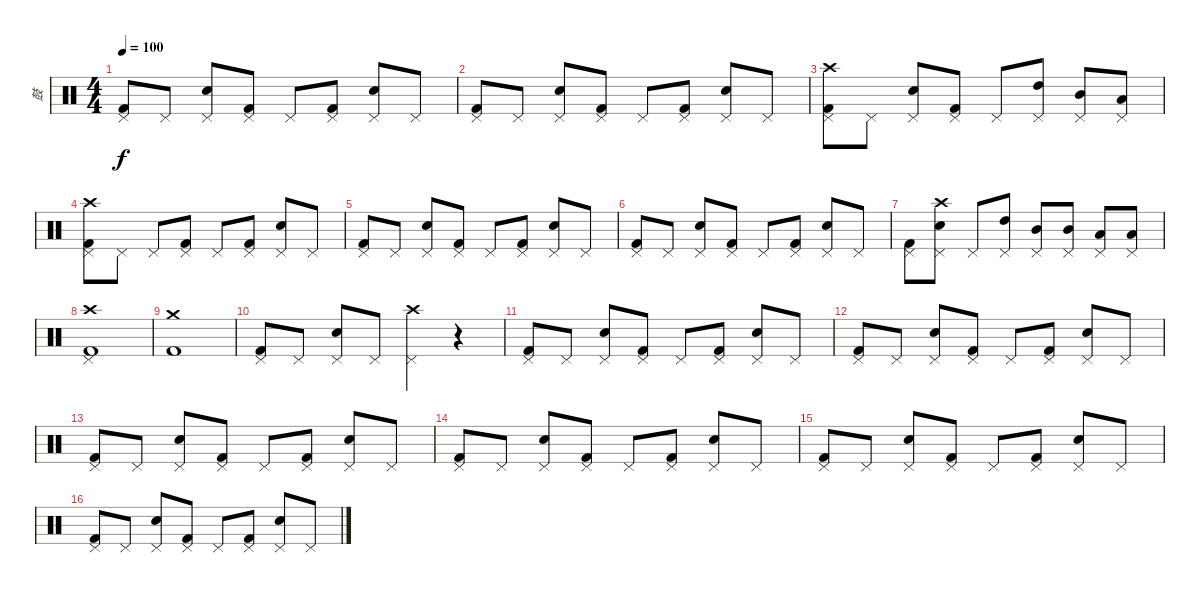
\track ("鼓" "鼓") {instrument percussion}
\staff {score}
\articulation defaults
\ts (4 4)
\tempo 100
\clef neutral
\ks c
("Pedal Hi-Hat (hit)" "Kick (hit) 2").8{dy f} "Pedal Hi-Hat (hit)".8 ("Pedal Hi-Hat (hit)" "Snare (hit) 2").8 ("Pedal Hi-Hat (hit)" "Kick (hit) 2").8 "Pedal Hi-Hat (hit)".8 ("Pedal Hi-Hat (hit)" "Kick (hit) 2").8 ("Pedal Hi-Hat (hit)" "Snare (hit) 2").8 "Pedal Hi-Hat (hit)".8 |
("Pedal Hi-Hat (hit)" "Kick (hit) 2").8 "Pedal Hi-Hat (hit)".8 ("Pedal Hi-Hat (hit)" "Snare (hit) 2").8 ("Pedal Hi-Hat (hit)" "Kick (hit) 2").8 "Pedal Hi-Hat (hit)".8 ("Pedal Hi-Hat (hit)" "Kick (hit) 2").8 ("Pedal Hi-Hat (hit)" "Snare (hit) 2").8 "Pedal Hi-Hat (hit)".8 |
("Pedal Hi-Hat (hit)" "Crash high (hit)" "Kick (hit) 2").8 "Pedal Hi-Hat (hit)".8 ("Pedal Hi-Hat (hit)" "Snare (hit) 2").8 ("Pedal Hi-Hat (hit)" "Kick (hit) 2").8 "Pedal Hi-Hat (hit)".8 ("Pedal Hi-Hat (hit)" "High Tom (hit)").8 ("Pedal Hi-Hat (hit)" "Mid Tom (hit)").8 ("Pedal Hi-Hat (hit)" "Low Tom (hit)").8 |
("Pedal Hi-Hat (hit)" "Crash high (hit)" "Kick (hit) 2").8 "Pedal Hi-Hat (hit)".8 "Pedal Hi-Hat (hit)".8 ("Pedal Hi-Hat (hit)" "Kick (hit) 2").8 "Pedal Hi-Hat (hit)".8 ("Pedal Hi-Hat (hit)" "Kick (hit) 2").8 ("Pedal Hi-Hat (hit)" "Snare (hit) 2").8 "Pedal Hi-Hat (hit)".8 |
("Pedal Hi-Hat (hit)" "Kick (hit) 2").8 "Pedal Hi-Hat (hit)".8 ("Pedal Hi-Hat (hit)" "Snare (hit) 2").8 ("Pedal Hi-Hat (hit)" "Kick (hit) 2").8 "Pedal Hi-Hat (hit)".8 ("Pedal Hi-Hat (hit)" "Kick (hit) 2").8 ("Pedal Hi-Hat (hit)" "Snare (hit) 2").8 "Pedal Hi-Hat (hit)".8 |
("Pedal Hi-Hat (hit)" "Kick (hit) 2").8 "Pedal Hi-Hat (hit)".8 ("Pedal Hi-Hat (hit)" "Snare (hit) 2").8 ("Pedal Hi-Hat (hit)" "Kick (hit) 2").8 "Pedal Hi-Hat (hit)".8 ("Pedal Hi-Hat (hit)" "Kick (hit) 2").8 ("Pedal Hi-Hat (hit)" "Snare (hit) 2").8 "Pedal Hi-Hat (hit)".8 |
("Pedal Hi-Hat (hit)" "Kick (hit) 2").8 ("Pedal Hi-Hat (hit)" "Crash high (hit)" "Snare (hit) 2").8 "Pedal Hi-Hat (hit)".8 ("Pedal Hi-Hat (hit)" "High Tom (hit)").8 ("Pedal Hi-Hat (hit)" "Mid Tom (hit)").8 ("Pedal Hi-Hat (hit)" "Mid Tom (hit)").8 ("Pedal Hi-Hat (hit)" "Low Tom (hit)").8 ("Pedal Hi-Hat (hit)" "Low Tom (hit)").8 |
("Pedal Hi-Hat (hit)" "Crash high (hit)" "Kick (hit) 2").1 |
("Crash medium (hit)" "Kick (hit) 2").1 |
("Pedal Hi-Hat (hit)" "Kick (hit) 2").8 "Pedal Hi-Hat (hit)".8 ("Pedal Hi-Hat (hit)" "Snare (hit) 2").8 "Pedal Hi-Hat (hit)".8 ("Pedal Hi-Hat (hit)" "Crash high (hit)").4 r.4 |
("Pedal Hi-Hat (hit)" "Kick (hit) 2").8 "Pedal Hi-Hat (hit)".8 ("Pedal Hi-Hat (hit)" "Snare (hit) 2").8 ("Pedal Hi-Hat (hit)" "Kick (hit) 2").8 "Pedal Hi-Hat (hit)".8 ("Pedal Hi-Hat (hit)" "Kick (hit) 2").8 ("Pedal Hi-Hat (hit)" "Snare (hit) 2").8 "Pedal Hi-Hat (hit)".8 |
("Pedal Hi-Hat (hit)" "Kick (hit) 2").8 "Pedal Hi-Hat (hit)".8 ("Pedal Hi-Hat (hit)" "Snare (hit) 2").8 ("Pedal Hi-Hat (hit)" "Kick (hit) 2").8 "Pedal Hi-Hat (hit)".8 ("Pedal Hi-Hat (hit)" "Kick (hit) 2").8 ("Pedal Hi-Hat (hit)" "Snare (hit) 2").8 "Pedal Hi-Hat (hit)".8 |
("Pedal Hi-Hat (hit)" "Kick (hit) 2").8 "Pedal Hi-Hat (hit)".8 ("Pedal Hi-Hat (hit)" "Snare (hit) 2").8 ("Pedal Hi-Hat (hit)" "Kick (hit) 2").8 "Pedal Hi-Hat (hit)".8 ("Pedal Hi-Hat (hit)" "Kick (hit) 2").8 ("Pedal Hi-Hat (hit)" "Snare (hit) 2").8 "Pedal Hi-Hat (hit)".8 |
("Pedal Hi-Hat (hit)" "Kick (hit) 2").8 "Pedal Hi-Hat (hit)".8 ("Pedal Hi-Hat (hit)" "Snare (hit) 2").8 ("Pedal Hi-Hat (hit)" "Kick (hit) 2").8 "Pedal Hi-Hat (hit)".8 ("Pedal Hi-Hat (hit)" "Kick (hit) 2").8 ("Pedal Hi-Hat (hit)" "Snare (hit) 2").8 "Pedal Hi-Hat (hit)".8 |
("Pedal Hi-Hat (hit)" "Kick (hit) 2").8 "Pedal Hi-Hat (hit)".8 ("Pedal Hi-Hat (hit)" "Snare (hit) 2").8 ("Pedal Hi-Hat (hit)" "Kick (hit) 2").8 "Pedal Hi-Hat (hit)".8 ("Pedal Hi-Hat (hit)" "Kick (hit) 2").8 ("Pedal Hi-Hat (hit)" "Snare (hit) 2").8 "Pedal Hi-Hat (hit)".8 |
("Pedal Hi-Hat (hit)" "Kick (hit) 2").8 "Pedal Hi-Hat (hit)".8 ("Pedal Hi-Hat (hit)" "Snare (hit) 2").8 ("Pedal Hi-Hat (hit)" "Kick (hit) 2").8 "Pedal Hi-Hat (hit)".8 ("Pedal Hi-Hat (hit)" "Kick (hit) 2").8 ("Pedal Hi-Hat (hit)" "Snare (hit) 2").8 "Pedal Hi-Hat (hit)".8
